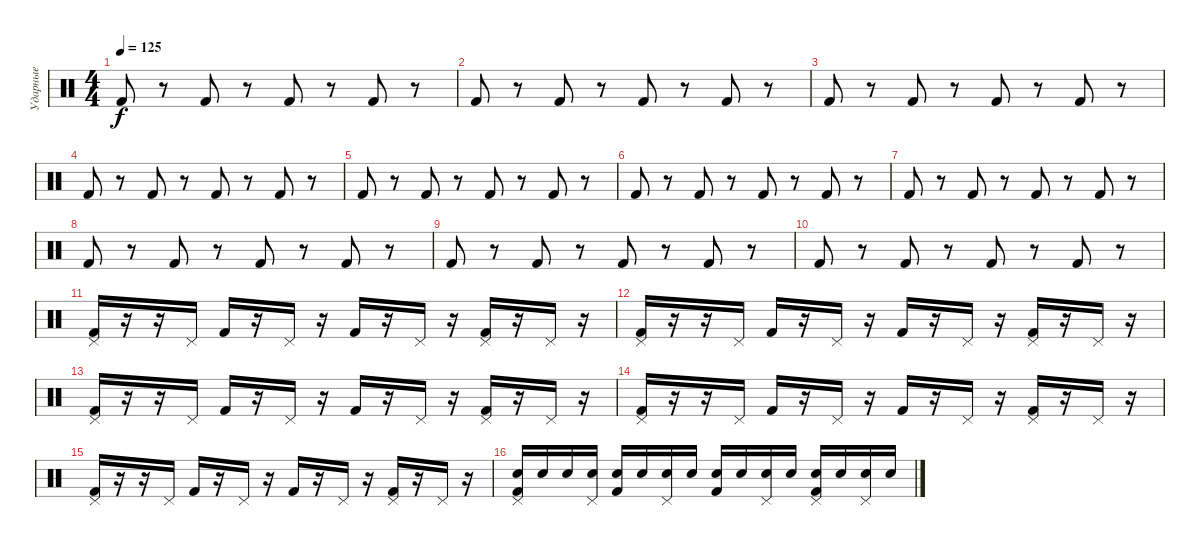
\track ("Ударные" "Ударные") {instrument percussion}
\staff {score}
\articulation defaults
\ts (4 4)
\tempo 125
\clef neutral
\ks c "Kick (hit) 2".8{dy f}
r.8 "Kick (hit) 2".8 r.8 "Kick (hit) 2".8 r.8 "Kick (hit) 2".8 r.8 |
"Kick (hit) 2".8 r.8 "Kick (hit) 2".8 r.8 "Kick (hit) 2".8 r.8 "Kick (hit) 2".8 r.8 |
"Kick (hit) 2".8 r.8 "Kick (hit) 2".8 r.8 "Kick (hit) 2".8 r.8 "Kick (hit) 2".8 r.8 |
"Kick (hit) 2".8 r.8 "Kick (hit) 2".8 r.8 "Kick (hit) 2".8 r.8 "Kick (hit) 2".8 r.8 |
"Kick (hit) 2".8 r.8 "Kick (hit) 2".8 r.8 "Kick (hit) 2".8 r.8 "Kick (hit) 2".8 r.8 |
"Kick (hit) 2".8 r.8 "Kick (hit) 2".8 r.8 "Kick (hit) 2".8 r.8 "Kick (hit) 2".8 r.8 |
"Kick (hit) 2".8 r.8 "Kick (hit) 2".8 r.8 "Kick (hit) 2".8 r.8 "Kick (hit) 2".8 r.8 |
"Kick (hit) 2".8 r.8 "Kick (hit) 2".8 r.8 "Kick (hit) 2".8 r.8 "Kick (hit) 2".8 r.8 |
"Kick (hit) 2".8 r.8 "Kick (hit) 2".8 r.8 "Kick (hit) 2".8 r.8 "Kick (hit) 2".8 r.8 |
"Kick (hit) 2".8 r.8 "Kick (hit) 2".8 r.8 "Kick (hit) 2".8 r.8 "Kick (hit) 2".8 r.8 |
("Kick (hit) 2" "Pedal Hi-Hat (hit)").16 r.16 r.16 "Pedal Hi-Hat (hit)".16 "Kick (hit) 2".16 r.16 "Pedal Hi-Hat (hit)".16 r.16 "Kick (hit) 2".16 r.16 "Pedal Hi-Hat (hit)".16 r.16 ("Kick (hit) 2" "Pedal Hi-Hat (hit)").16 r.16 "Pedal Hi-Hat (hit)".16 r.16 |
("Kick (hit) 2" "Pedal Hi-Hat (hit)").16 r.16 r.16 "Pedal Hi-Hat (hit)".16 "Kick (hit) 2".16 r.16 "Pedal Hi-Hat (hit)".16 r.16 "Kick (hit) 2".16 r.16 "Pedal Hi-Hat (hit)".16 r.16 ("Kick (hit) 2" "Pedal Hi-Hat (hit)").16 r.16 "Pedal Hi-Hat (hit)".16 r.16 |
("Kick (hit) 2" "Pedal Hi-Hat (hit)").16 r.16 r.16 "Pedal Hi-Hat (hit)".16 "Kick (hit) 2".16 r.16 "Pedal Hi-Hat (hit)".16 r.16 "Kick (hit) 2".16 r.16 "Pedal Hi-Hat (hit)".16 r.16 ("Kick (hit) 2" "Pedal Hi-Hat (hit)").16 r.16 "Pedal Hi-Hat (hit)".16 r.16 |
("Kick (hit) 2" "Pedal Hi-Hat (hit)").16 r.16 r.16 "Pedal Hi-Hat (hit)".16 "Kick (hit) 2".16 r.16 "Pedal Hi-Hat (hit)".16 r.16 "Kick (hit) 2".16 r.16 "Pedal Hi-Hat (hit)".16 r.16 ("Kick (hit) 2" "Pedal Hi-Hat (hit)").16 r.16 "Pedal Hi-Hat (hit)".16 r.16 |
("Kick (hit) 2" "Pedal Hi-Hat (hit)").16 r.16 r.16 "Pedal Hi-Hat (hit)".16 "Kick (hit) 2".16 r.16 "Pedal Hi-Hat (hit)".16 r.16 "Kick (hit) 2".16 r.16 "Pedal Hi-Hat (hit)".16 r.16 ("Kick (hit) 2" "Pedal Hi-Hat (hit)").16 r.16 "Pedal Hi-Hat (hit)".16 r.16 |
("Kick (hit) 2" "Snare (hit) 2" "Pedal Hi-Hat (hit)").16 "Snare (hit) 2".16 "Snare (hit) 2".16 ("Snare (hit) 2" "Pedal Hi-Hat (hit)").16 ("Kick (hit) 2" "Snare (hit) 2").16 "Snare (hit) 2".16 ("Snare (hit) 2" "Pedal Hi-Hat (hit)").16 "Snare (hit) 2".16 ("Kick (hit) 2" "Snare (hit) 2").16 "Snare (hit) 2".16 ("Snare (hit) 2" "Pedal Hi-Hat (hit)").16 "Snare (hit) 2".16 ("Kick (hit) 2" "Snare (hit) 2" "Pedal Hi-Hat (hit)").16 "Snare (hit) 2".16 ("Snare (hit) 2" "Pedal Hi-Hat (hit)").16 "Snare (hit) 2".16
